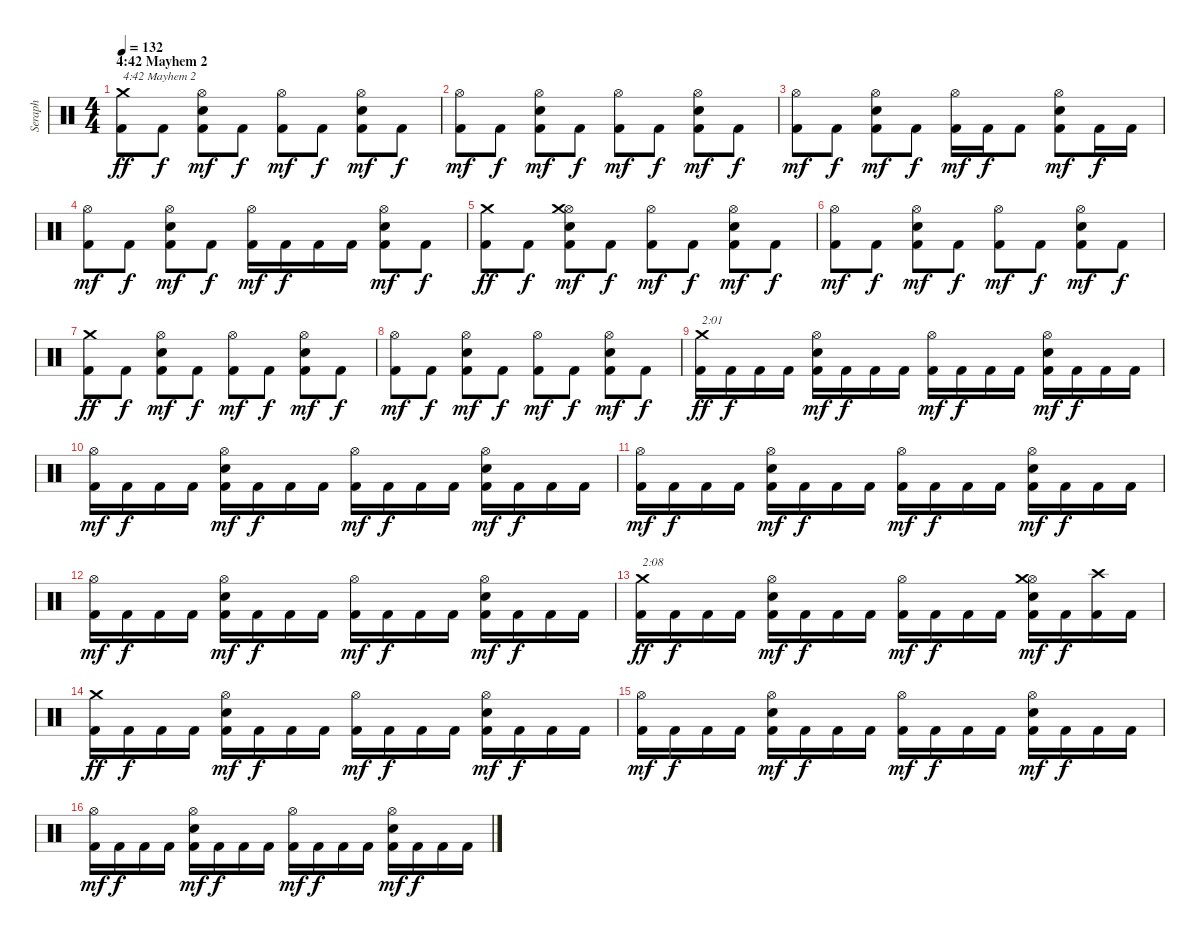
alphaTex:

\track ("Seraph" "Seraph") {instrument percussion}
\staff {score}
\articulation defaults
\ts (4 4)
\section ("" "4:42 Mayhem 2")
\tempo 132
\clef neutral
\ks c
("Kick (hit) 2" "Crash medium (hit)").8{txt "4:42 Mayhem 2" dy ff} "Kick (hit) 2".8{dy f} ("Kick (hit) 2" "Electric Snare (hit)" "Hi-Hat (open)").8{dy mf} "Kick (hit) 2".8{dy f} ("Kick (hit) 2" "Hi-Hat (open)").8{dy mf} "Kick (hit) 2".8{dy f} ("Kick (hit) 2" "Electric Snare (hit)" "Hi-Hat (open)").8{dy mf} "Kick (hit) 2".8{dy f} |
("Kick (hit) 2" "Hi-Hat (open)").8{dy mf} "Kick (hit) 2".8{dy f} ("Kick (hit) 2" "Electric Snare (hit)" "Hi-Hat (open)").8{dy mf} "Kick (hit) 2".8{dy f} ("Kick (hit) 2" "Hi-Hat (open)").8{dy mf} "Kick (hit) 2".8{dy f} ("Kick (hit) 2" "Electric Snare (hit)" "Hi-Hat (open)").8{dy mf} "Kick (hit) 2".8{dy f} |
("Kick (hit) 2" "Hi-Hat (open)").8{dy mf} "Kick (hit) 2".8{dy f} ("Kick (hit) 2" "Electric Snare (hit)" "Hi-Hat (open)").8{dy mf} "Kick (hit) 2".8{dy f} ("Kick (hit) 2" "Hi-Hat (open)").16{dy mf} "Kick (hit) 2".16{dy f} "Kick (hit) 2".8 ("Kick (hit) 2" "Electric Snare (hit)" "Hi-Hat (open)").8{dy mf} "Kick (hit) 2".16{dy f} "Kick (hit) 2".16 |
("Kick (hit) 2" "Hi-Hat (open)").8{dy mf} "Kick (hit) 2".8{dy f} ("Kick (hit) 2" "Electric Snare (hit)" "Hi-Hat (open)").8{dy mf} "Kick (hit) 2".8{dy f} ("Kick (hit) 2" "Hi-Hat (open)").16{dy mf} "Kick (hit) 2".16{dy f} "Kick (hit) 2".16 "Kick (hit) 2".16 ("Kick (hit) 2" "Electric Snare (hit)" "Hi-Hat (open)").8{dy mf} "Kick (hit) 2".8{dy f} |
("Kick (hit) 2" "Crash medium (hit)").8{dy ff} "Kick (hit) 2".8{dy f} ("Kick (hit) 2" "Electric Snare (hit)" "Hi-Hat (open)" "Crash medium (hit)").8{dy mf} "Kick (hit) 2".8{dy f} ("Kick (hit) 2" "Hi-Hat (open)").8{dy mf} "Kick (hit) 2".8{dy f} ("Kick (hit) 2" "Electric Snare (hit)" "Hi-Hat (open)").8{dy mf} "Kick (hit) 2".8{dy f} |
("Kick (hit) 2" "Hi-Hat (open)").8{dy mf} "Kick (hit) 2".8{dy f} ("Kick (hit) 2" "Electric Snare (hit)" "Hi-Hat (open)").8{dy mf} "Kick (hit) 2".8{dy f} ("Kick (hit) 2" "Hi-Hat (open)").8{dy mf} "Kick (hit) 2".8{dy f} ("Kick (hit) 2" "Electric Snare (hit)" "Hi-Hat (open)").8{dy mf} "Kick (hit) 2".8{dy f} |
("Kick (hit) 2" "Crash medium (hit)").8{dy ff} "Kick (hit) 2".8{dy f} ("Kick (hit) 2" "Electric Snare (hit)" "Hi-Hat (open)").8{dy mf} "Kick (hit) 2".8{dy f} ("Kick (hit) 2" "Hi-Hat (open)").8{dy mf} "Kick (hit) 2".8{dy f} ("Kick (hit) 2" "Electric Snare (hit)" "Hi-Hat (open)").8{dy mf} "Kick (hit) 2".8{dy f} |
("Kick (hit) 2" "Hi-Hat (open)").8{dy mf} "Kick (hit) 2".8{dy f} ("Kick (hit) 2" "Electric Snare (hit)" "Hi-Hat (open)").8{dy mf} "Kick (hit) 2".8{dy f} ("Kick (hit) 2" "Hi-Hat (open)").8{dy mf} "Kick (hit) 2".8{dy f} ("Kick (hit) 2" "Electric Snare (hit)" "Hi-Hat (open)").8{dy mf} "Kick (hit) 2".8{dy f} |
("Kick (hit) 2" "Crash medium (hit)").16{txt "2:01" dy ff} "Kick (hit) 2".16{dy f} "Kick (hit) 2".16 "Kick (hit) 2".16 ("Kick (hit) 2" "Electric Snare (hit)" "Hi-Hat (open)").16{dy mf} "Kick (hit) 2".16{dy f} "Kick (hit) 2".16 "Kick (hit) 2".16 ("Kick (hit) 2" "Hi-Hat (open)").16{dy mf} "Kick (hit) 2".16{dy f} "Kick (hit) 2".16 "Kick (hit) 2".16 ("Kick (hit) 2" "Electric Snare (hit)" "Hi-Hat (open)").16{dy mf} "Kick (hit) 2".16{dy f} "Kick (hit) 2".16 "Kick (hit) 2".16 |
("Kick (hit) 2" "Hi-Hat (open)").16{dy mf} "Kick (hit) 2".16{dy f} "Kick (hit) 2".16 "Kick (hit) 2".16 ("Kick (hit) 2" "Electric Snare (hit)" "Hi-Hat (open)").16{dy mf} "Kick (hit) 2".16{dy f} "Kick (hit) 2".16 "Kick (hit) 2".16 ("Kick (hit) 2" "Hi-Hat (open)").16{dy mf} "Kick (hit) 2".16{dy f} "Kick (hit) 2".16 "Kick (hit) 2".16 ("Kick (hit) 2" "Electric Snare (hit)" "Hi-Hat (open)").16{dy mf} "Kick (hit) 2".16{dy f} "Kick (hit) 2".16 "Kick (hit) 2".16 |
("Kick (hit) 2" "Hi-Hat (open)").16{dy mf} "Kick (hit) 2".16{dy f} "Kick (hit) 2".16 "Kick (hit) 2".16 ("Kick (hit) 2" "Electric Snare (hit)" "Hi-Hat (open)").16{dy mf} "Kick (hit) 2".16{dy f} "Kick (hit) 2".16 "Kick (hit) 2".16 ("Kick (hit) 2" "Hi-Hat (open)").16{dy mf} "Kick (hit) 2".16{dy f} "Kick (hit) 2".16 "Kick (hit) 2".16 ("Kick (hit) 2" "Electric Snare (hit)" "Hi-Hat (open)").16{dy mf} "Kick (hit) 2".16{dy f} "Kick (hit) 2".16 "Kick (hit) 2".16 |
("Kick (hit) 2" "Hi-Hat (open)").16{dy mf} "Kick (hit) 2".16{dy f} "Kick (hit) 2".16 "Kick (hit) 2".16 ("Kick (hit) 2" "Electric Snare (hit)" "Hi-Hat (open)").16{dy mf} "Kick (hit) 2".16{dy f} "Kick (hit) 2".16 "Kick (hit) 2".16 ("Kick (hit) 2" "Hi-Hat (open)").16{dy mf} "Kick (hit) 2".16{dy f} "Kick (hit) 2".16 "Kick (hit) 2".16 ("Kick (hit) 2" "Electric Snare (hit)" "Hi-Hat (open)").16{dy mf} "Kick (hit) 2".16{dy f} "Kick (hit) 2".16 "Kick (hit) 2".16 |
("Kick (hit) 2" "Crash medium (hit)").16{txt "2:08" dy ff} "Kick (hit) 2".16{dy f} "Kick (hit) 2".16 "Kick (hit) 2".16 ("Kick (hit) 2" "Electric Snare (hit)" "Hi-Hat (open)").16{dy mf} "Kick (hit) 2".16{dy f} "Kick (hit) 2".16 "Kick (hit) 2".16 ("Kick (hit) 2" "Hi-Hat (open)").16{dy mf} "Kick (hit) 2".16{dy f} "Kick (hit) 2".16 "Kick (hit) 2".16 ("Kick (hit) 2" "Electric Snare (hit)" "Hi-Hat (open)" "Crash medium (hit)").16{dy mf} "Kick (hit) 2".16{dy f} ("Kick (hit) 2" "Crash high (hit)").16 "Kick (hit) 2".16 |
("Kick (hit) 2" "Crash medium (hit)").16{dy ff} "Kick (hit) 2".16{dy f} "Kick (hit) 2".16 "Kick (hit) 2".16 ("Kick (hit) 2" "Electric Snare (hit)" "Hi-Hat (open)").16{dy mf} "Kick (hit) 2".16{dy f} "Kick (hit) 2".16 "Kick (hit) 2".16 ("Kick (hit) 2" "Hi-Hat (open)").16{dy mf} "Kick (hit) 2".16{dy f} "Kick (hit) 2".16 "Kick (hit) 2".16 ("Kick (hit) 2" "Electric Snare (hit)" "Hi-Hat (open)").16{dy mf} "Kick (hit) 2".16{dy f} "Kick (hit) 2".16 "Kick (hit) 2".16 |
("Kick (hit) 2" "Hi-Hat (open)").16{dy mf} "Kick (hit) 2".16{dy f} "Kick (hit) 2".16 "Kick (hit) 2".16 ("Kick (hit) 2" "Electric Snare (hit)" "Hi-Hat (open)").16{dy mf} "Kick (hit) 2".16{dy f} "Kick (hit) 2".16 "Kick (hit) 2".16 ("Kick (hit) 2" "Hi-Hat (open)").16{dy mf} "Kick (hit) 2".16{dy f} "Kick (hit) 2".16 "Kick (hit) 2".16 ("Kick (hit) 2" "Electric Snare (hit)" "Hi-Hat (open)").16{dy mf} "Kick (hit) 2".16{dy f} "Kick (hit) 2".16 "Kick (hit) 2".16 |
("Kick (hit) 2" "Hi-Hat (open)").16{dy mf} "Kick (hit) 2".16{dy f} "Kick (hit) 2".16 "Kick (hit) 2".16 ("Kick (hit) 2" "Electric Snare (hit)" "Hi-Hat (open)").16{dy mf} "Kick (hit) 2".16{dy f} "Kick (hit) 2".16 "Kick (hit) 2".16 ("Kick (hit) 2" "Hi-Hat (open)").16{dy mf} "Kick (hit) 2".16{dy f} "Kick (hit) 2".16 "Kick (hit) 2".16 ("Kick (hit) 2" "Electric Snare (hit)" "Hi-Hat (open)").16{dy mf} "Kick (hit) 2".16{dy f} "Kick (hit) 2".16 "Kick (hit) 2".16
